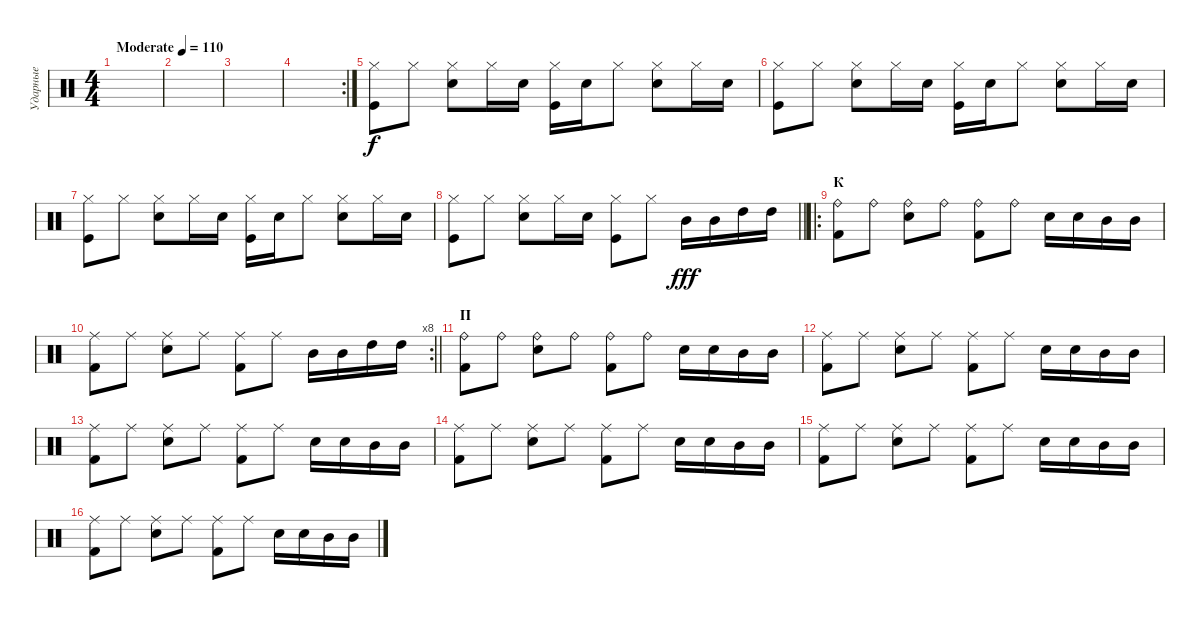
\track ("Ударные" "Ударные") {instrument percussion}
\staff {score}
\articulation defaults
\ts (4 4)
\tempo (110 "Moderate")
\clef neutral
\ks c
|
|
|
\rc 2
|
("Hi-Hat (closed)" "Kick (hit)").8 "Hi-Hat (closed)".8 ("Hi-Hat (closed)" "Electric Snare (hit)").8 "Hi-Hat (closed)".16 "Electric Snare (hit)".16 ("Hi-Hat (closed)" "Kick (hit)").16 "Electric Snare (hit)".16 "Hi-Hat (closed)".8 ("Hi-Hat (closed)" "Electric Snare (hit)").8 "Hi-Hat (closed)".16 "Electric Snare (hit)".16 |
("Hi-Hat (closed)" "Kick (hit)").8 "Hi-Hat (closed)".8 ("Hi-Hat (closed)" "Electric Snare (hit)").8 "Hi-Hat (closed)".16 "Electric Snare (hit)".16 ("Hi-Hat (closed)" "Kick (hit)").16 "Electric Snare (hit)".16 "Hi-Hat (closed)".8 ("Hi-Hat (closed)" "Electric Snare (hit)").8 "Hi-Hat (closed)".16 "Electric Snare (hit)".16 |
("Hi-Hat (closed)" "Kick (hit)").8 "Hi-Hat (closed)".8 ("Hi-Hat (closed)" "Electric Snare (hit)").8 "Hi-Hat (closed)".16 "Electric Snare (hit)".16 ("Hi-Hat (closed)" "Kick (hit)").16 "Electric Snare (hit)".16 "Hi-Hat (closed)".8 ("Hi-Hat (closed)" "Electric Snare (hit)").8 "Hi-Hat (closed)".16 "Electric Snare (hit)".16 |
\barLineRight lightlight
("Hi-Hat (closed)" "Kick (hit)").8 "Hi-Hat (closed)".8 ("Hi-Hat (closed)" "Electric Snare (hit)").8 "Hi-Hat (closed)".16 "Electric Snare (hit)".16 ("Hi-Hat (closed)" "Kick (hit)").8 "Hi-Hat (closed)".8 "Mid Tom (hit)".16{dy fff} "Mid Tom (hit)".16 "High Tom (hit)".16 "High Tom (hit)".16 |
\ro
\section ("" "К")
("Kick (hit) 2" "Ride (bell)").8 "Ride (bell)".8 ("Electric Snare (hit)" "Ride (bell)").8 "Ride (bell)".8 ("Kick (hit) 2" "Ride (bell)").8 "Ride (bell)".8 "Electric Snare (hit)".16 "Electric Snare (hit)".16 "Mid Tom (hit)".16 "Mid Tom (hit)".16 |
\rc 8
\barLineRight lightlight
("Kick (hit) 2" "Ride (middle)").8 "Ride (middle)".8 ("Electric Snare (hit)" "Ride (middle)").8 "Ride (middle)".8 ("Kick (hit) 2" "Ride (middle)").8 "Ride (middle)".8 "Mid Tom (hit)".16 "Mid Tom (hit)".16 "High Tom (hit)".16 "High Tom (hit)".16 |
\section ("" "П")
("Kick (hit) 2" "Ride (bell)").8 "Ride (bell)".8 ("Electric Snare (hit)" "Ride (bell)").8 "Ride (bell)".8 ("Kick (hit) 2" "Ride (bell)").8 "Ride (bell)".8 "Electric Snare (hit)".16 "Electric Snare (hit)".16 "Mid Tom (hit)".16 "Mid Tom (hit)".16 |
("Kick (hit) 2" "Ride (middle)").8 "Ride (middle)".8 ("Electric Snare (hit)" "Ride (middle)").8 "Ride (middle)".8 ("Kick (hit) 2" "Ride (middle)").8 "Ride (middle)".8 "Electric Snare (hit)".16 "Electric Snare (hit)".16 "Mid Tom (hit)".16 "Mid Tom (hit)".16 |
("Kick (hit) 2" "Ride (middle)").8 "Ride (middle)".8 ("Electric Snare (hit)" "Ride (middle)").8 "Ride (middle)".8 ("Kick (hit) 2" "Ride (middle)").8 "Ride (middle)".8 "Electric Snare (hit)".16 "Electric Snare (hit)".16 "Mid Tom (hit)".16 "Mid Tom (hit)".16 |
("Kick (hit) 2" "Ride (middle)").8 "Ride (middle)".8 ("Electric Snare (hit)" "Ride (middle)").8 "Ride (middle)".8 ("Kick (hit) 2" "Ride (middle)").8 "Ride (middle)".8 "Electric Snare (hit)".16 "Electric Snare (hit)".16 "Mid Tom (hit)".16 "Mid Tom (hit)".16 |
("Kick (hit) 2" "Ride (middle)").8 "Ride (middle)".8 ("Electric Snare (hit)" "Ride (middle)").8 "Ride (middle)".8 ("Kick (hit) 2" "Ride (middle)").8 "Ride (middle)".8 "Electric Snare (hit)".16 "Electric Snare (hit)".16 "Mid Tom (hit)".16 "Mid Tom (hit)".16 |
("Kick (hit) 2" "Ride (middle)").8 "Ride (middle)".8 ("Electric Snare (hit)" "Ride (middle)").8 "Ride (middle)".8 ("Kick (hit) 2" "Ride (middle)").8 "Ride (middle)".8 "Electric Snare (hit)".16 "Electric Snare (hit)".16 "Mid Tom (hit)".16 "Mid Tom (hit)".16
